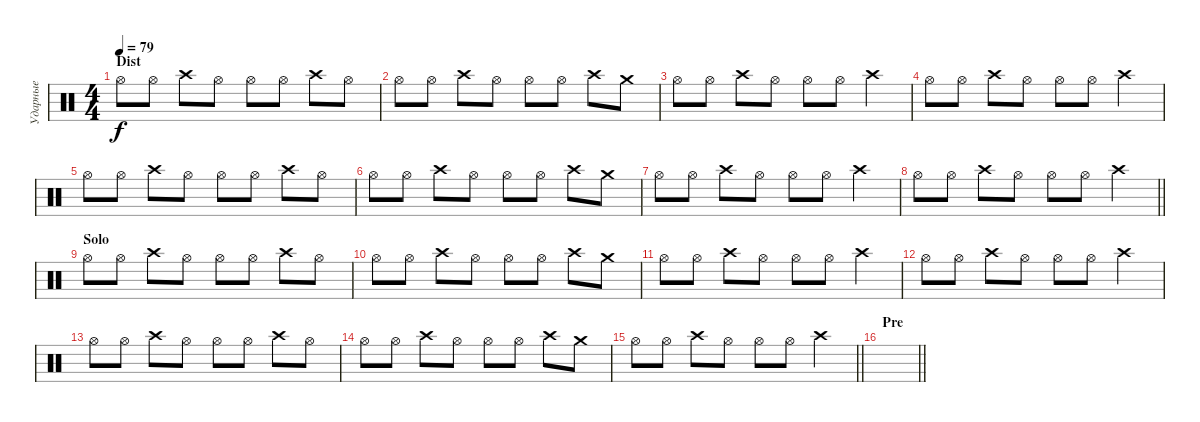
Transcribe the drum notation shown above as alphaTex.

\track ("Ударные" "Ударные") {instrument percussion}
\staff {score}
\articulation defaults
\ts (4 4)
\section ("" "Dist")
\tempo 79
\clef neutral
\ks c "Hi-Hat (open)".8{dy f} "Hi-Hat (open)".8 "Crash high (hit)".8 "Hi-Hat (open)".8 "Hi-Hat (open)".8 "Hi-Hat (open)".8 "Crash high (hit)".8 "Hi-Hat (open)".8
|
"Hi-Hat (open)".8 "Hi-Hat (open)".8 "Crash high (hit)".8 "Hi-Hat (open)".8 "Hi-Hat (open)".8 "Hi-Hat (open)".8 "Crash high (hit)".8 "Crash medium (hit)".8 |
"Hi-Hat (open)".8 "Hi-Hat (open)".8 "Crash high (hit)".8 "Hi-Hat (open)".8 "Hi-Hat (open)".8 "Hi-Hat (open)".8 "Crash high (hit)".4 |
"Hi-Hat (open)".8 "Hi-Hat (open)".8 "Crash high (hit)".8 "Hi-Hat (open)".8 "Hi-Hat (open)".8 "Hi-Hat (open)".8 "Crash high (hit)".4 |
"Hi-Hat (open)".8 "Hi-Hat (open)".8 "Crash high (hit)".8 "Hi-Hat (open)".8 "Hi-Hat (open)".8 "Hi-Hat (open)".8 "Crash high (hit)".8 "Hi-Hat (open)".8 |
"Hi-Hat (open)".8 "Hi-Hat (open)".8 "Crash high (hit)".8 "Hi-Hat (open)".8 "Hi-Hat (open)".8 "Hi-Hat (open)".8 "Crash high (hit)".8 "Crash medium (hit)".8 |
"Hi-Hat (open)".8 "Hi-Hat (open)".8 "Crash high (hit)".8 "Hi-Hat (open)".8 "Hi-Hat (open)".8 "Hi-Hat (open)".8 "Crash high (hit)".4 |
\barLineRight lightlight "Hi-Hat (open)".8 "Hi-Hat (open)".8 "Crash high (hit)".8 "Hi-Hat (open)".8 "Hi-Hat (open)".8 "Hi-Hat (open)".8 "Crash high (hit)".4
|
\section ("" "Solo")
"Hi-Hat (open)".8 "Hi-Hat (open)".8 "Crash high (hit)".8 "Hi-Hat (open)".8 "Hi-Hat (open)".8 "Hi-Hat (open)".8 "Crash high (hit)".8 "Hi-Hat (open)".8 |
"Hi-Hat (open)".8 "Hi-Hat (open)".8 "Crash high (hit)".8 "Hi-Hat (open)".8 "Hi-Hat (open)".8 "Hi-Hat (open)".8 "Crash high (hit)".8 "Crash medium (hit)".8 |
"Hi-Hat (open)".8 "Hi-Hat (open)".8 "Crash high (hit)".8 "Hi-Hat (open)".8 "Hi-Hat (open)".8 "Hi-Hat (open)".8 "Crash high (hit)".4 |
"Hi-Hat (open)".8 "Hi-Hat (open)".8 "Crash high (hit)".8 "Hi-Hat (open)".8 "Hi-Hat (open)".8 "Hi-Hat (open)".8 "Crash high (hit)".4 |
"Hi-Hat (open)".8 "Hi-Hat (open)".8 "Crash high (hit)".8 "Hi-Hat (open)".8 "Hi-Hat (open)".8 "Hi-Hat (open)".8 "Crash high (hit)".8 "Hi-Hat (open)".8 |
"Hi-Hat (open)".8 "Hi-Hat (open)".8 "Crash high (hit)".8 "Hi-Hat (open)".8 "Hi-Hat (open)".8 "Hi-Hat (open)".8 "Crash high (hit)".8 "Crash medium (hit)".8 |
\barLineRight lightlight "Hi-Hat (open)".8 "Hi-Hat (open)".8 "Crash high (hit)".8 "Hi-Hat (open)".8 "Hi-Hat (open)".8 "Hi-Hat (open)".8 "Crash high (hit)".4
|
\section ("" "Pre")
\barLineRight lightlight
